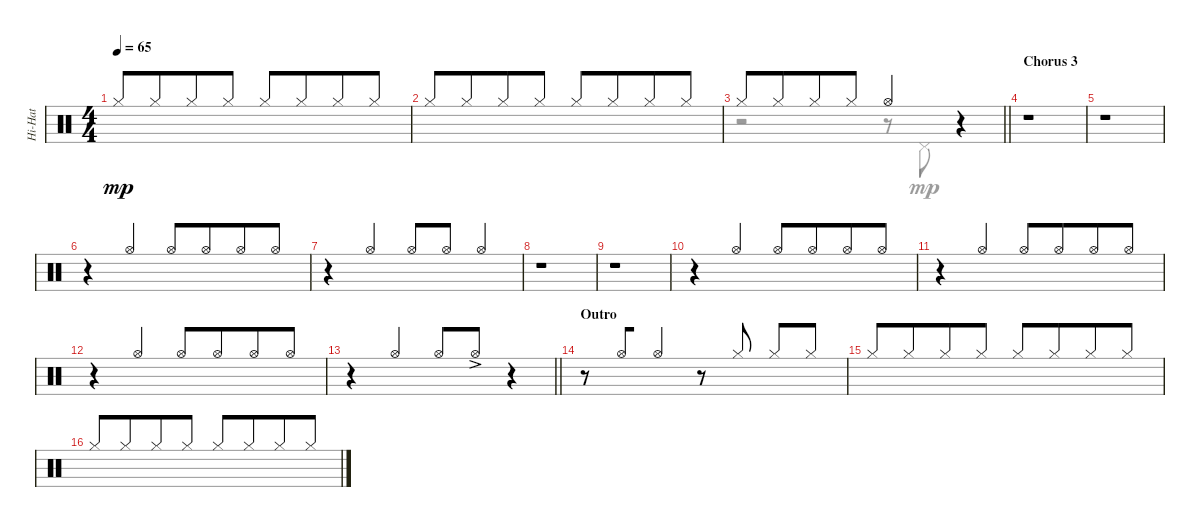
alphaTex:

\track ("Hi-Hat" "Hi-Hat") {instrument percussion}
\staff {score}
\articulation defaults
\voice
\ts (4 4)
\tempo 65
\clef neutral
\ks c "Hi-Hat (closed)".8{dy mp beam Up} "Hi-Hat (closed)".8{beam Up beam merge} "Hi-Hat (closed)".8{beam Up} "Hi-Hat (closed)".8{beam Up} "Hi-Hat (closed)".8{beam Up} "Hi-Hat (closed)".8{beam Up beam merge} "Hi-Hat (closed)".8{beam Up} "Hi-Hat (closed)".8{beam Up}
|
"Hi-Hat (closed)".8{beam Up} "Hi-Hat (closed)".8{beam Up beam merge} "Hi-Hat (closed)".8{beam Up} "Hi-Hat (closed)".8{beam Up} "Hi-Hat (closed)".8{beam Up} "Hi-Hat (closed)".8{beam Up beam merge} "Hi-Hat (closed)".8{beam Up} "Hi-Hat (closed)".8{beam Up} |
\barLineRight lightlight "Hi-Hat (closed)".8 "Hi-Hat (closed)".8{beam merge} "Hi-Hat (closed)".8 "Hi-Hat (closed)".8 "Hi-Hat (open)".4
r.4 |
\section ("" "Chorus 3")
r.1 |
r.1 |
r.4{beam merge} "Hi-Hat (open)".4{beam Up} "Hi-Hat (open)".8{beam Up} "Hi-Hat (open)".8{beam Up beam merge} "Hi-Hat (open)".8{beam Up} "Hi-Hat (open)".8{beam Up} |
r.4{beam merge} "Hi-Hat (open)".4{beam Up} "Hi-Hat (open)".8{beam Up} "Hi-Hat (open)".8{beam Up} "Hi-Hat (open)".4{beam Up} |
r.1 |
r.1 |
r.4{beam merge} "Hi-Hat (open)".4{beam Up} "Hi-Hat (open)".8{beam Up} "Hi-Hat (open)".8{beam Up beam merge} "Hi-Hat (open)".8{beam Up} "Hi-Hat (open)".8{beam Up} |
r.4{beam merge} "Hi-Hat (open)".4{beam Up} "Hi-Hat (open)".8{beam Up} "Hi-Hat (open)".8{beam Up beam merge} "Hi-Hat (open)".8{beam Up} "Hi-Hat (open)".8{beam Up} |
r.4{beam merge} "Hi-Hat (open)".4{beam Up} "Hi-Hat (open)".8{beam Up} "Hi-Hat (open)".8{beam Up beam merge} "Hi-Hat (open)".8{beam Up} "Hi-Hat (open)".8{beam Up} |
\barLineRight lightlight
r.4{beam merge} "Hi-Hat (open)".4{beam Up} "Hi-Hat (open)".8{beam Up} "Hi-Hat (open)"{ac}.8{beam Up} r.4 |
\section ("" "Outro")
r.8 "Hi-Hat (open)".8{beam Up beam merge} "Hi-Hat (open)".4{beam Up} r.8 "Hi-Hat (closed)".8{beam Up} "Hi-Hat (closed)".8{beam Up} "Hi-Hat (closed)".8{beam Up} |
"Hi-Hat (closed)".8{beam Up} "Hi-Hat (closed)".8{beam Up beam merge} "Hi-Hat (closed)".8{beam Up} "Hi-Hat (closed)".8{beam Up} "Hi-Hat (closed)".8{beam Up} "Hi-Hat (closed)".8{beam Up beam merge} "Hi-Hat (closed)".8{beam Up} "Hi-Hat (closed)".8{beam Up} |
"Hi-Hat (closed)".8{beam Up} "Hi-Hat (closed)".8{beam Up beam merge} "Hi-Hat (closed)".8{beam Up} "Hi-Hat (closed)".8{beam Up} "Hi-Hat (closed)".8{beam Up} "Hi-Hat (closed)".8{beam Up beam merge} "Hi-Hat (closed)".8{beam Up} "Hi-Hat (closed)".8{beam Up}
\voice
\clef neutral
\ottava regular
\simile none
\ks c
|
|
\barLineRight lightlight
r.2 r.8 "Pedal Hi-Hat (hit)".8 r.4 |
|
|
|
|
|
|
|
|
|
\barLineRight lightlight
|
|
|
